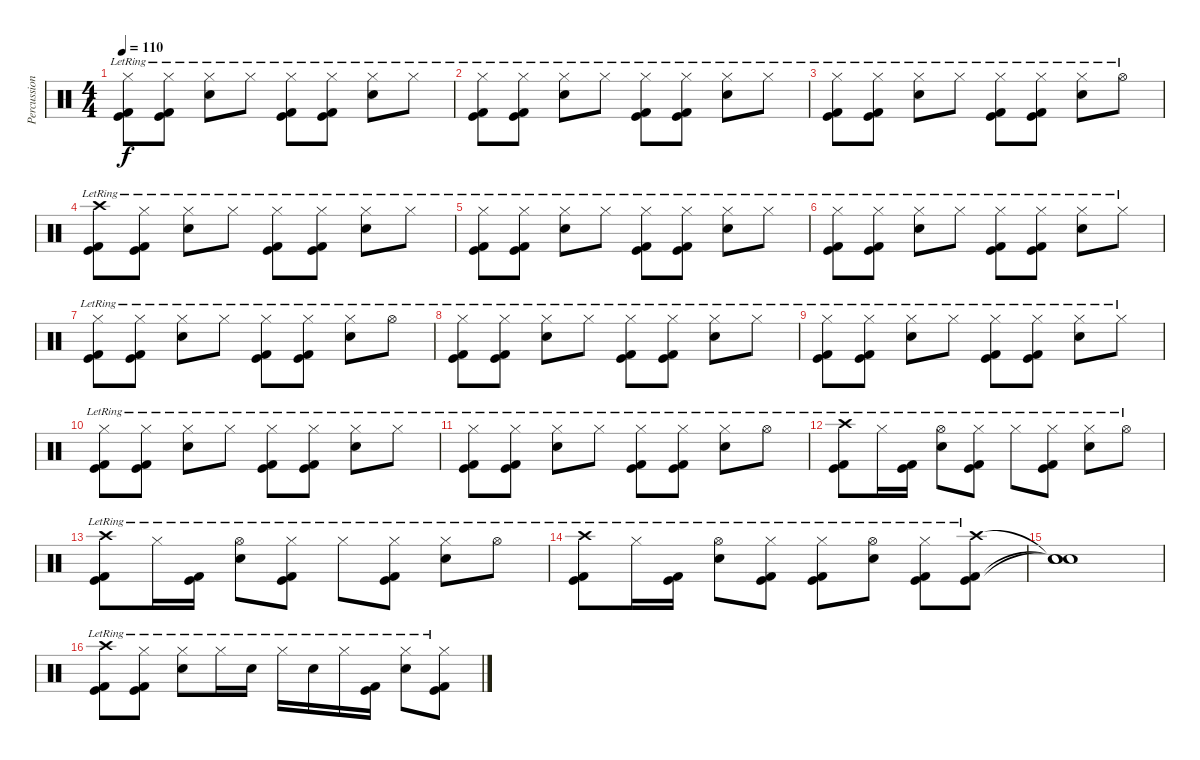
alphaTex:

\track ("Percussion" "Percussion") {instrument percussion}
\staff {score}
\articulation defaults
\ts (4 4)
\tempo 110
\clef neutral
\ks c
("Hi-Hat (closed)"{lr} "Kick (hit) 2"{lr} "Kick (hit)"{lr}).8{dy f} ("Hi-Hat (closed)"{lr} "Kick (hit) 2"{lr} "Kick (hit)"{lr}).8 ("Hi-Hat (closed)"{lr} "Snare (hit) 2"{lr}).8 "Hi-Hat (closed)"{lr}.8 ("Hi-Hat (closed)"{lr} "Kick (hit) 2"{lr} "Kick (hit)"{lr}).8 ("Hi-Hat (closed)"{lr} "Kick (hit) 2"{lr} "Kick (hit)"{lr}).8 ("Hi-Hat (closed)"{lr} "Snare (hit) 2"{lr}).8 "Hi-Hat (closed)"{lr}.8 |
("Hi-Hat (closed)"{lr} "Kick (hit) 2"{lr} "Kick (hit)"{lr}).8 ("Hi-Hat (closed)"{lr} "Kick (hit) 2"{lr} "Kick (hit)"{lr}).8 ("Hi-Hat (closed)"{lr} "Snare (hit) 2"{lr}).8 "Hi-Hat (closed)"{lr}.8 ("Hi-Hat (closed)"{lr} "Kick (hit) 2"{lr} "Kick (hit)"{lr}).8 ("Hi-Hat (closed)"{lr} "Kick (hit) 2"{lr} "Kick (hit)"{lr}).8 ("Hi-Hat (closed)"{lr} "Snare (hit) 2"{lr}).8 "Hi-Hat (closed)"{lr}.8 |
("Hi-Hat (closed)"{lr} "Kick (hit) 2"{lr} "Kick (hit)"{lr}).8 ("Hi-Hat (closed)"{lr} "Kick (hit) 2"{lr} "Kick (hit)"{lr}).8 ("Hi-Hat (closed)"{lr} "Snare (hit) 2"{lr}).8 "Hi-Hat (closed)"{lr}.8 ("Hi-Hat (closed)"{lr} "Kick (hit) 2"{lr} "Kick (hit)"{lr}).8 ("Hi-Hat (closed)"{lr} "Kick (hit) 2"{lr} "Kick (hit)"{lr}).8 ("Hi-Hat (closed)"{lr} "Snare (hit) 2"{lr}).8 "Hi-Hat (open)"{lr}.8 |
("Crash high (hit)"{lr} "Kick (hit) 2"{lr} "Kick (hit)"{lr}).8 ("Hi-Hat (closed)"{lr} "Kick (hit) 2"{lr} "Kick (hit)"{lr}).8 ("Hi-Hat (closed)"{lr} "Snare (hit) 2"{lr}).8 "Hi-Hat (closed)"{lr}.8 ("Hi-Hat (closed)"{lr} "Kick (hit) 2"{lr} "Kick (hit)"{lr}).8 ("Hi-Hat (closed)"{lr} "Kick (hit) 2"{lr} "Kick (hit)"{lr}).8 ("Hi-Hat (closed)"{lr} "Snare (hit) 2"{lr}).8 "Hi-Hat (closed)"{lr}.8 |
("Hi-Hat (closed)"{lr} "Kick (hit) 2"{lr} "Kick (hit)"{lr}).8 ("Hi-Hat (closed)"{lr} "Kick (hit) 2"{lr} "Kick (hit)"{lr}).8 ("Hi-Hat (closed)"{lr} "Snare (hit) 2"{lr}).8 "Hi-Hat (closed)"{lr}.8 ("Hi-Hat (closed)"{lr} "Kick (hit) 2"{lr} "Kick (hit)"{lr}).8 ("Hi-Hat (closed)"{lr} "Kick (hit) 2"{lr} "Kick (hit)"{lr}).8 ("Hi-Hat (closed)"{lr} "Snare (hit) 2"{lr}).8 "Hi-Hat (closed)"{lr}.8 |
("Hi-Hat (closed)"{lr} "Kick (hit) 2"{lr} "Kick (hit)"{lr}).8 ("Hi-Hat (closed)"{lr} "Kick (hit) 2"{lr} "Kick (hit)"{lr}).8 ("Hi-Hat (closed)"{lr} "Snare (hit) 2"{lr}).8 "Hi-Hat (closed)"{lr}.8 ("Hi-Hat (closed)"{lr} "Kick (hit) 2"{lr} "Kick (hit)"{lr}).8 ("Hi-Hat (closed)"{lr} "Kick (hit) 2"{lr} "Kick (hit)"{lr}).8 ("Hi-Hat (closed)"{lr} "Snare (hit) 2"{lr}).8 "Hi-Hat (closed)"{lr}.8 |
("Hi-Hat (closed)"{lr} "Kick (hit) 2"{lr} "Kick (hit)"{lr}).8 ("Hi-Hat (closed)"{lr} "Kick (hit) 2"{lr} "Kick (hit)"{lr}).8 ("Hi-Hat (closed)"{lr} "Snare (hit) 2"{lr}).8 "Hi-Hat (closed)"{lr}.8 ("Hi-Hat (closed)"{lr} "Kick (hit) 2"{lr} "Kick (hit)"{lr}).8 ("Hi-Hat (closed)"{lr} "Kick (hit) 2"{lr} "Kick (hit)"{lr}).8 ("Hi-Hat (closed)"{lr} "Snare (hit) 2"{lr}).8 "Hi-Hat (open)"{lr}.8 |
("Hi-Hat (closed)"{lr} "Kick (hit) 2"{lr} "Kick (hit)"{lr}).8 ("Hi-Hat (closed)"{lr} "Kick (hit) 2"{lr} "Kick (hit)"{lr}).8 ("Hi-Hat (closed)"{lr} "Snare (hit) 2"{lr}).8 "Hi-Hat (closed)"{lr}.8 ("Hi-Hat (closed)"{lr} "Kick (hit) 2"{lr} "Kick (hit)"{lr}).8 ("Hi-Hat (closed)"{lr} "Kick (hit) 2"{lr} "Kick (hit)"{lr}).8 ("Hi-Hat (closed)"{lr} "Snare (hit) 2"{lr}).8 "Hi-Hat (closed)"{lr}.8 |
("Hi-Hat (closed)"{lr} "Kick (hit) 2"{lr} "Kick (hit)"{lr}).8 ("Hi-Hat (closed)"{lr} "Kick (hit) 2"{lr} "Kick (hit)"{lr}).8 ("Hi-Hat (closed)"{lr} "Snare (hit) 2"{lr}).8 "Hi-Hat (closed)"{lr}.8 ("Hi-Hat (closed)"{lr} "Kick (hit) 2"{lr} "Kick (hit)"{lr}).8 ("Hi-Hat (closed)"{lr} "Kick (hit) 2"{lr} "Kick (hit)"{lr}).8 ("Hi-Hat (closed)"{lr} "Snare (hit) 2"{lr}).8 "Hi-Hat (closed)"{lr}.8 |
("Hi-Hat (closed)"{lr} "Kick (hit) 2"{lr} "Kick (hit)"{lr}).8 ("Hi-Hat (closed)"{lr} "Kick (hit) 2"{lr} "Kick (hit)"{lr}).8 ("Hi-Hat (closed)"{lr} "Snare (hit) 2"{lr}).8 "Hi-Hat (closed)"{lr}.8 ("Hi-Hat (closed)"{lr} "Kick (hit) 2"{lr} "Kick (hit)"{lr}).8 ("Hi-Hat (closed)"{lr} "Kick (hit) 2"{lr} "Kick (hit)"{lr}).8 ("Hi-Hat (closed)"{lr} "Snare (hit) 2"{lr}).8 "Hi-Hat (closed)"{lr}.8 |
("Hi-Hat (closed)"{lr} "Kick (hit) 2"{lr} "Kick (hit)"{lr}).8 ("Hi-Hat (closed)"{lr} "Kick (hit) 2"{lr} "Kick (hit)"{lr}).8 ("Hi-Hat (closed)"{lr} "Snare (hit) 2"{lr}).8 "Hi-Hat (closed)"{lr}.8 ("Hi-Hat (closed)"{lr} "Kick (hit) 2"{lr} "Kick (hit)"{lr}).8 ("Hi-Hat (closed)"{lr} "Kick (hit) 2"{lr} "Kick (hit)"{lr}).8 ("Hi-Hat (closed)"{lr} "Snare (hit) 2"{lr}).8 "Hi-Hat (open)"{lr}.8 |
("Crash high (hit)"{lr} "Kick (hit) 2"{lr} "Kick (hit)"{lr}).8 "Hi-Hat (closed)"{lr}.16 ("Kick (hit) 2"{lr} "Kick (hit)"{lr}).16 ("Hi-Hat (open)"{lr} "Electric Snare (hit)"{lr}).8 ("Hi-Hat (closed)"{lr} "Kick (hit) 2"{lr} "Kick (hit)"{lr}).8 "Hi-Hat (closed)"{lr}.8 ("Hi-Hat (closed)"{lr} "Kick (hit) 2"{lr} "Kick (hit)"{lr}).8 ("Hi-Hat (closed)"{lr} "Electric Snare (hit)"{lr}).8 "Hi-Hat (open)"{lr}.8 |
("Crash high (hit)"{lr} "Kick (hit) 2"{lr} "Kick (hit)"{lr}).8 "Hi-Hat (closed)"{lr}.16 ("Kick (hit) 2"{lr} "Kick (hit)"{lr}).16 ("Hi-Hat (open)"{lr} "Electric Snare (hit)"{lr}).8 ("Hi-Hat (closed)"{lr} "Kick (hit) 2"{lr} "Kick (hit)"{lr}).8 "Hi-Hat (closed)"{lr}.8 ("Hi-Hat (closed)"{lr} "Kick (hit) 2"{lr} "Kick (hit)"{lr}).8 ("Hi-Hat (closed)"{lr} "Electric Snare (hit)"{lr}).8 "Hi-Hat (open)"{lr}.8 |
("Crash high (hit)"{lr} "Kick (hit) 2"{lr} "Kick (hit)"{lr}).8 "Hi-Hat (closed)"{lr}.16 ("Kick (hit) 2"{lr} "Kick (hit)"{lr}).16 ("Hi-Hat (open)"{lr} "Electric Snare (hit)"{lr}).8 ("Hi-Hat (closed)"{lr} "Kick (hit) 2"{lr} "Kick (hit)"{lr}).8 ("Hi-Hat (closed)"{lr} "Kick (hit) 2"{lr} "Kick (hit)"{lr}).8 ("Hi-Hat (open)"{lr} "Electric Snare (hit)"{lr}).8 ("Hi-Hat (closed)"{lr} "Kick (hit) 2"{lr} "Kick (hit)"{lr}).8 ("Crash high (hit)"{lr} "Kick (hit) 2"{lr} "Kick (hit)"{lr}).8 |
("Snare (hit)"{t} "Snare (hit)"{t} "Snare (hit)"{t}).1 |
("Crash high (hit)"{lr} "Kick (hit) 2"{lr} "Kick (hit)"{lr}).8 ("Hi-Hat (closed)"{lr} "Kick (hit) 2"{lr} "Kick (hit)"{lr}).8 ("Hi-Hat (closed)"{lr} "Snare (hit) 2"{lr}).8 "Hi-Hat (closed)"{lr}.16 "Snare (hit) 2"{lr}.16 "Hi-Hat (closed)"{lr}.16 "Snare (hit) 2"{lr}.16 "Hi-Hat (closed)"{lr}.16 ("Kick (hit) 2"{lr} "Kick (hit)"{lr}).16 ("Hi-Hat (closed)"{lr} "Snare (hit) 2"{lr}).8 ("Hi-Hat (closed)"{lr} "Kick (hit) 2"{lr} "Kick (hit)"{lr}).8
